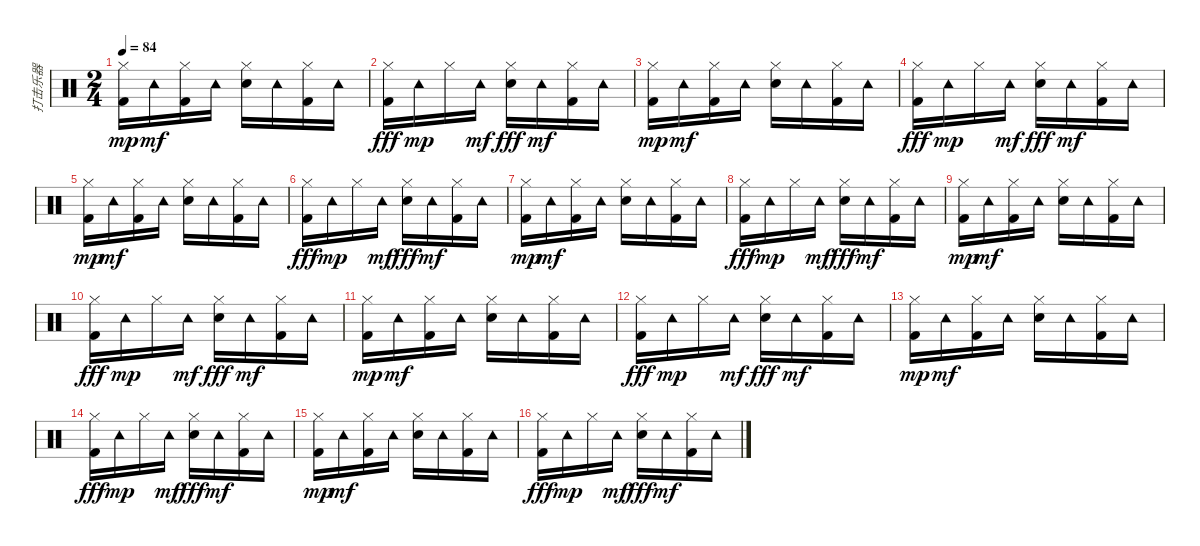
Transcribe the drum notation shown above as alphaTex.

\track ("打击乐器" "打击乐器") {instrument percussion}
\staff {score}
\articulation defaults
\ts (2 4)
\tempo 84
\clef neutral
\ks c
("Hi-Hat (closed)" "Kick (hit) 2").16{dy mp} "Tambourine (hit)".16{dy mf} ("Hi-Hat (closed)" "Kick (hit) 2").16 "Tambourine (hit)".16 ("Hi-Hat (closed)" "Snare (hit) 2").16 "Tambourine (hit)".16 ("Hi-Hat (closed)" "Kick (hit) 2").16 "Tambourine (hit)".16 |
("Hi-Hat (closed)" "Kick (hit) 2").16{dy fff} "Tambourine (hit)".16{dy mp} "Hi-Hat (closed)".16 "Tambourine (hit)".16{dy mf} ("Hi-Hat (closed)" "Snare (hit) 2").16{dy fff} "Tambourine (hit)".16{dy mf} ("Hi-Hat (closed)" "Kick (hit) 2").16 "Tambourine (hit)".16 |
("Hi-Hat (closed)" "Kick (hit) 2").16{dy mp} "Tambourine (hit)".16{dy mf} ("Hi-Hat (closed)" "Kick (hit) 2").16 "Tambourine (hit)".16 ("Hi-Hat (closed)" "Snare (hit) 2").16 "Tambourine (hit)".16 ("Hi-Hat (closed)" "Kick (hit) 2").16 "Tambourine (hit)".16 |
("Hi-Hat (closed)" "Kick (hit) 2").16{dy fff} "Tambourine (hit)".16{dy mp} "Hi-Hat (closed)".16 "Tambourine (hit)".16{dy mf} ("Hi-Hat (closed)" "Snare (hit) 2").16{dy fff} "Tambourine (hit)".16{dy mf} ("Hi-Hat (closed)" "Kick (hit) 2").16 "Tambourine (hit)".16 |
("Hi-Hat (closed)" "Kick (hit) 2").16{dy mp} "Tambourine (hit)".16{dy mf} ("Hi-Hat (closed)" "Kick (hit) 2").16 "Tambourine (hit)".16 ("Hi-Hat (closed)" "Snare (hit) 2").16 "Tambourine (hit)".16 ("Hi-Hat (closed)" "Kick (hit) 2").16 "Tambourine (hit)".16 |
("Hi-Hat (closed)" "Kick (hit) 2").16{dy fff} "Tambourine (hit)".16{dy mp} "Hi-Hat (closed)".16 "Tambourine (hit)".16{dy mf} ("Hi-Hat (closed)" "Snare (hit) 2").16{dy fff} "Tambourine (hit)".16{dy mf} ("Hi-Hat (closed)" "Kick (hit) 2").16 "Tambourine (hit)".16 |
("Hi-Hat (closed)" "Kick (hit) 2").16{dy mp} "Tambourine (hit)".16{dy mf} ("Hi-Hat (closed)" "Kick (hit) 2").16 "Tambourine (hit)".16 ("Hi-Hat (closed)" "Snare (hit) 2").16 "Tambourine (hit)".16 ("Hi-Hat (closed)" "Kick (hit) 2").16 "Tambourine (hit)".16 |
("Hi-Hat (closed)" "Kick (hit) 2").16{dy fff} "Tambourine (hit)".16{dy mp} "Hi-Hat (closed)".16 "Tambourine (hit)".16{dy mf} ("Hi-Hat (closed)" "Snare (hit) 2").16{dy fff} "Tambourine (hit)".16{dy mf} ("Hi-Hat (closed)" "Kick (hit) 2").16 "Tambourine (hit)".16 |
("Hi-Hat (closed)" "Kick (hit) 2").16{dy mp} "Tambourine (hit)".16{dy mf} ("Hi-Hat (closed)" "Kick (hit) 2").16 "Tambourine (hit)".16 ("Hi-Hat (closed)" "Snare (hit) 2").16 "Tambourine (hit)".16 ("Hi-Hat (closed)" "Kick (hit) 2").16 "Tambourine (hit)".16 |
("Hi-Hat (closed)" "Kick (hit) 2").16{dy fff} "Tambourine (hit)".16{dy mp} "Hi-Hat (closed)".16 "Tambourine (hit)".16{dy mf} ("Hi-Hat (closed)" "Snare (hit) 2").16{dy fff} "Tambourine (hit)".16{dy mf} ("Hi-Hat (closed)" "Kick (hit) 2").16 "Tambourine (hit)".16 |
("Hi-Hat (closed)" "Kick (hit) 2").16{dy mp} "Tambourine (hit)".16{dy mf} ("Hi-Hat (closed)" "Kick (hit) 2").16 "Tambourine (hit)".16 ("Hi-Hat (closed)" "Snare (hit) 2").16 "Tambourine (hit)".16 ("Hi-Hat (closed)" "Kick (hit) 2").16 "Tambourine (hit)".16 |
("Hi-Hat (closed)" "Kick (hit) 2").16{dy fff} "Tambourine (hit)".16{dy mp} "Hi-Hat (closed)".16 "Tambourine (hit)".16{dy mf} ("Hi-Hat (closed)" "Snare (hit) 2").16{dy fff} "Tambourine (hit)".16{dy mf} ("Hi-Hat (closed)" "Kick (hit) 2").16 "Tambourine (hit)".16 |
("Hi-Hat (closed)" "Kick (hit) 2").16{dy mp} "Tambourine (hit)".16{dy mf} ("Hi-Hat (closed)" "Kick (hit) 2").16 "Tambourine (hit)".16 ("Hi-Hat (closed)" "Snare (hit) 2").16 "Tambourine (hit)".16 ("Hi-Hat (closed)" "Kick (hit) 2").16 "Tambourine (hit)".16 |
("Hi-Hat (closed)" "Kick (hit) 2").16{dy fff} "Tambourine (hit)".16{dy mp} "Hi-Hat (closed)".16 "Tambourine (hit)".16{dy mf} ("Hi-Hat (closed)" "Snare (hit) 2").16{dy fff} "Tambourine (hit)".16{dy mf} ("Hi-Hat (closed)" "Kick (hit) 2").16 "Tambourine (hit)".16 |
("Hi-Hat (closed)" "Kick (hit) 2").16{dy mp} "Tambourine (hit)".16{dy mf} ("Hi-Hat (closed)" "Kick (hit) 2").16 "Tambourine (hit)".16 ("Hi-Hat (closed)" "Snare (hit) 2").16 "Tambourine (hit)".16 ("Hi-Hat (closed)" "Kick (hit) 2").16 "Tambourine (hit)".16 |
("Hi-Hat (closed)" "Kick (hit) 2").16{dy fff} "Tambourine (hit)".16{dy mp} "Hi-Hat (closed)".16 "Tambourine (hit)".16{dy mf} ("Hi-Hat (closed)" "Snare (hit) 2").16{dy fff} "Tambourine (hit)".16{dy mf} ("Hi-Hat (closed)" "Kick (hit) 2").16 "Tambourine (hit)".16
